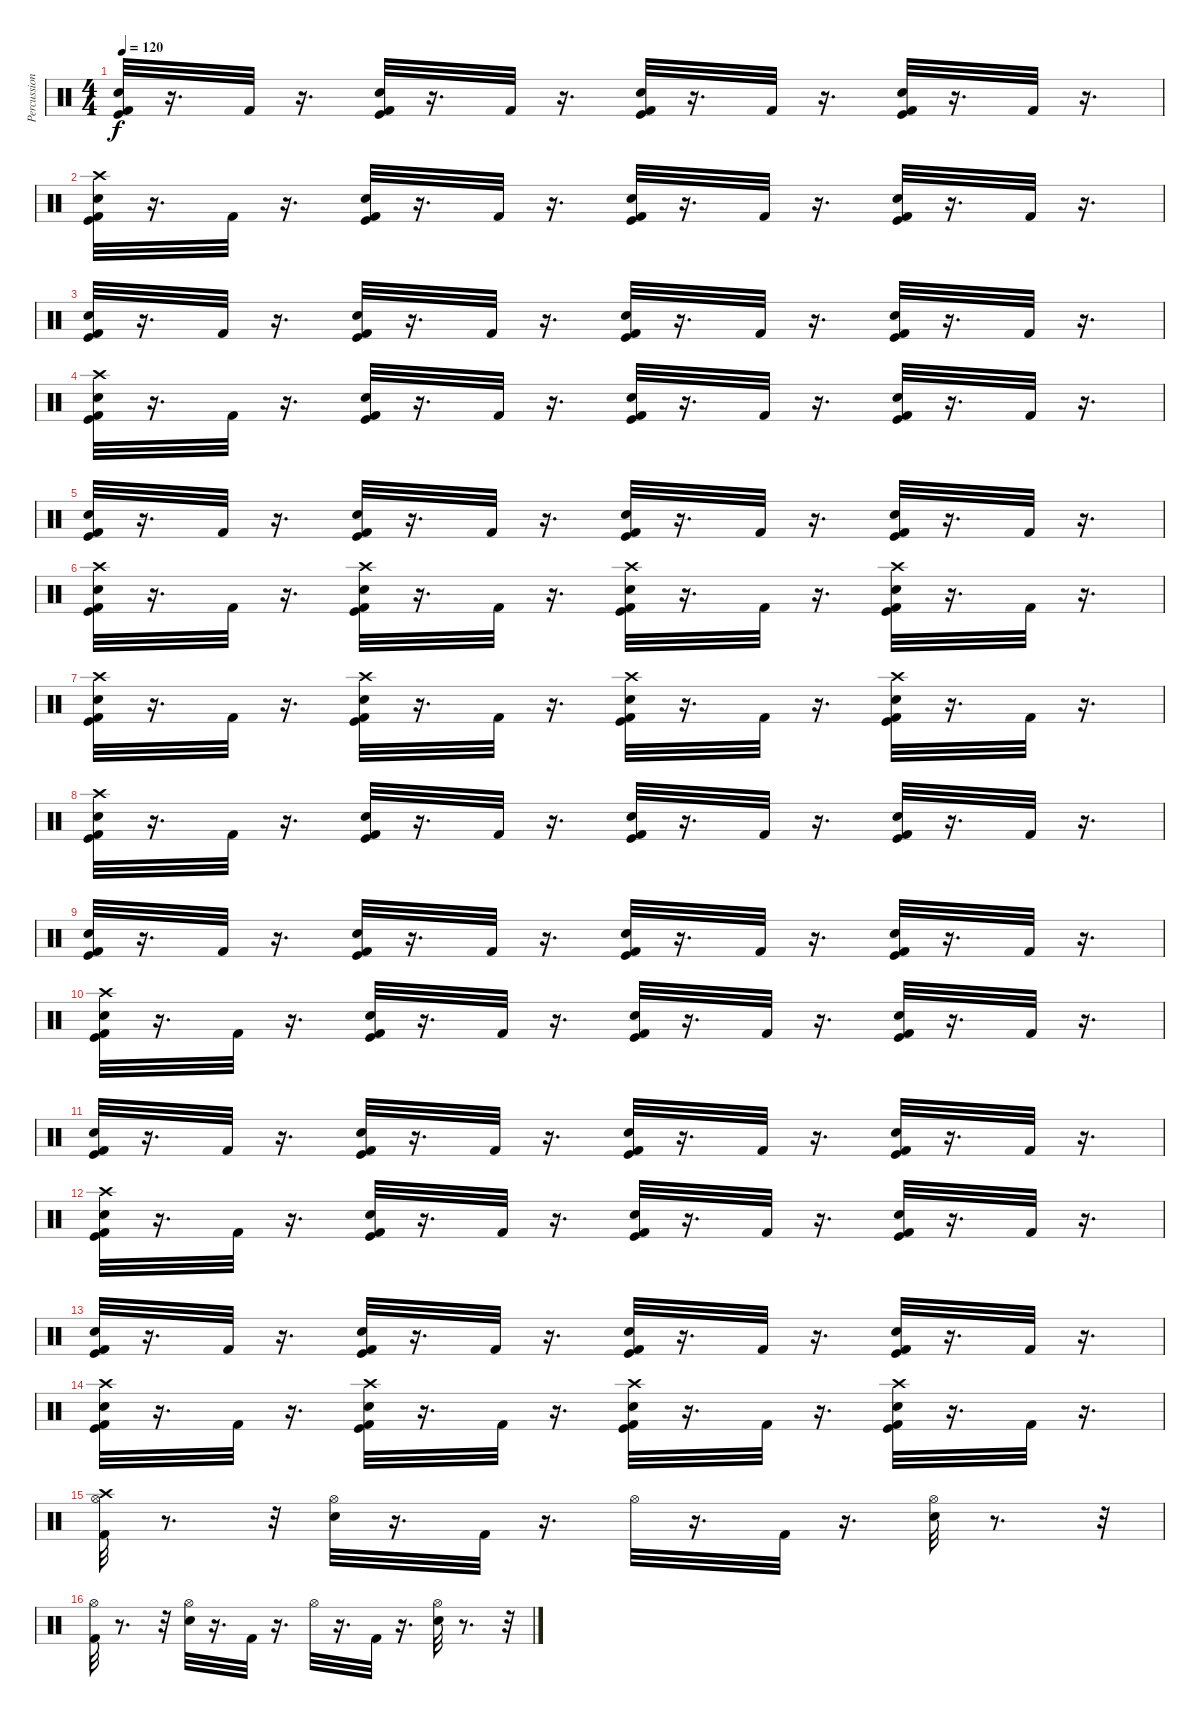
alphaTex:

\track ("Percussion" "Percussion") {instrument percussion}
\staff {score}
\articulation defaults
\ts (4 4)
\tempo 120
\clef neutral
\ks c
("Electric Snare (hit)" "Kick (hit) 2" "Kick (hit)").32{dy f} r.16{d} "Kick (hit) 2".32 r.16{d} ("Electric Snare (hit)" "Kick (hit)" "Kick (hit) 2").32 r.16{d} "Kick (hit) 2".32 r.16{d} ("Electric Snare (hit)" "Kick (hit)" "Kick (hit) 2").32 r.16{d} "Kick (hit) 2".32 r.16{d} ("Electric Snare (hit)" "Kick (hit)" "Kick (hit) 2").32 r.16{d} "Kick (hit) 2".32 r.16{d} |
("Crash high (hit)" "Electric Snare (hit)" "Kick (hit) 2" "Kick (hit)").32 r.16{d} "Kick (hit) 2".32 r.16{d} ("Electric Snare (hit)" "Kick (hit)" "Kick (hit) 2").32 r.16{d} "Kick (hit) 2".32 r.16{d} ("Electric Snare (hit)" "Kick (hit)" "Kick (hit) 2").32 r.16{d} "Kick (hit) 2".32 r.16{d} ("Electric Snare (hit)" "Kick (hit)" "Kick (hit) 2").32 r.16{d} "Kick (hit) 2".32 r.16{d} |
("Electric Snare (hit)" "Kick (hit) 2" "Kick (hit)").32 r.16{d} "Kick (hit) 2".32 r.16{d} ("Electric Snare (hit)" "Kick (hit)" "Kick (hit) 2").32 r.16{d} "Kick (hit) 2".32 r.16{d} ("Electric Snare (hit)" "Kick (hit)" "Kick (hit) 2").32 r.16{d} "Kick (hit) 2".32 r.16{d} ("Electric Snare (hit)" "Kick (hit)" "Kick (hit) 2").32 r.16{d} "Kick (hit) 2".32 r.16{d} |
("Crash high (hit)" "Electric Snare (hit)" "Kick (hit) 2" "Kick (hit)").32 r.16{d} "Kick (hit) 2".32 r.16{d} ("Electric Snare (hit)" "Kick (hit)" "Kick (hit) 2").32 r.16{d} "Kick (hit) 2".32 r.16{d} ("Electric Snare (hit)" "Kick (hit)" "Kick (hit) 2").32 r.16{d} "Kick (hit) 2".32 r.16{d} ("Electric Snare (hit)" "Kick (hit)" "Kick (hit) 2").32 r.16{d} "Kick (hit) 2".32 r.16{d} |
("Electric Snare (hit)" "Kick (hit) 2" "Kick (hit)").32 r.16{d} "Kick (hit) 2".32 r.16{d} ("Electric Snare (hit)" "Kick (hit)" "Kick (hit) 2").32 r.16{d} "Kick (hit) 2".32 r.16{d} ("Electric Snare (hit)" "Kick (hit)" "Kick (hit) 2").32 r.16{d} "Kick (hit) 2".32 r.16{d} ("Electric Snare (hit)" "Kick (hit)" "Kick (hit) 2").32 r.16{d} "Kick (hit) 2".32 r.16{d} |
("Crash high (hit)" "Electric Snare (hit)" "Kick (hit) 2" "Kick (hit)").32 r.16{d} "Kick (hit) 2".32 r.16{d} ("Crash high (hit)" "Electric Snare (hit)" "Kick (hit)" "Kick (hit) 2").32 r.16{d} "Kick (hit) 2".32 r.16{d} ("Crash high (hit)" "Electric Snare (hit)" "Kick (hit)" "Kick (hit) 2").32 r.16{d} "Kick (hit) 2".32 r.16{d} ("Crash high (hit)" "Electric Snare (hit)" "Kick (hit)" "Kick (hit) 2").32 r.16{d} "Kick (hit) 2".32 r.16{d} |
("Crash high (hit)" "Electric Snare (hit)" "Kick (hit) 2" "Kick (hit)").32 r.16{d} "Kick (hit) 2".32 r.16{d} ("Crash high (hit)" "Electric Snare (hit)" "Kick (hit)" "Kick (hit) 2").32 r.16{d} "Kick (hit) 2".32 r.16{d} ("Crash high (hit)" "Electric Snare (hit)" "Kick (hit)" "Kick (hit) 2").32 r.16{d} "Kick (hit) 2".32 r.16{d} ("Crash high (hit)" "Electric Snare (hit)" "Kick (hit)" "Kick (hit) 2").32 r.16{d} "Kick (hit) 2".32 r.16{d} |
("Crash high (hit)" "Electric Snare (hit)" "Kick (hit) 2" "Kick (hit)").32 r.16{d} "Kick (hit) 2".32 r.16{d} ("Electric Snare (hit)" "Kick (hit)" "Kick (hit) 2").32 r.16{d} "Kick (hit) 2".32 r.16{d} ("Electric Snare (hit)" "Kick (hit)" "Kick (hit) 2").32 r.16{d} "Kick (hit) 2".32 r.16{d} ("Electric Snare (hit)" "Kick (hit)" "Kick (hit) 2").32 r.16{d} "Kick (hit) 2".32 r.16{d} |
("Electric Snare (hit)" "Kick (hit) 2" "Kick (hit)").32 r.16{d} "Kick (hit) 2".32 r.16{d} ("Electric Snare (hit)" "Kick (hit)" "Kick (hit) 2").32 r.16{d} "Kick (hit) 2".32 r.16{d} ("Electric Snare (hit)" "Kick (hit)" "Kick (hit) 2").32 r.16{d} "Kick (hit) 2".32 r.16{d} ("Electric Snare (hit)" "Kick (hit)" "Kick (hit) 2").32 r.16{d} "Kick (hit) 2".32 r.16{d} |
("Crash high (hit)" "Electric Snare (hit)" "Kick (hit) 2" "Kick (hit)").32 r.16{d} "Kick (hit) 2".32 r.16{d} ("Electric Snare (hit)" "Kick (hit)" "Kick (hit) 2").32 r.16{d} "Kick (hit) 2".32 r.16{d} ("Electric Snare (hit)" "Kick (hit)" "Kick (hit) 2").32 r.16{d} "Kick (hit) 2".32 r.16{d} ("Electric Snare (hit)" "Kick (hit)" "Kick (hit) 2").32 r.16{d} "Kick (hit) 2".32 r.16{d} |
("Electric Snare (hit)" "Kick (hit) 2" "Kick (hit)").32 r.16{d} "Kick (hit) 2".32 r.16{d} ("Electric Snare (hit)" "Kick (hit)" "Kick (hit) 2").32 r.16{d} "Kick (hit) 2".32 r.16{d} ("Electric Snare (hit)" "Kick (hit)" "Kick (hit) 2").32 r.16{d} "Kick (hit) 2".32 r.16{d} ("Electric Snare (hit)" "Kick (hit)" "Kick (hit) 2").32 r.16{d} "Kick (hit) 2".32 r.16{d} |
("Crash high (hit)" "Electric Snare (hit)" "Kick (hit) 2" "Kick (hit)").32 r.16{d} "Kick (hit) 2".32 r.16{d} ("Electric Snare (hit)" "Kick (hit)" "Kick (hit) 2").32 r.16{d} "Kick (hit) 2".32 r.16{d} ("Electric Snare (hit)" "Kick (hit)" "Kick (hit) 2").32 r.16{d} "Kick (hit) 2".32 r.16{d} ("Electric Snare (hit)" "Kick (hit)" "Kick (hit) 2").32 r.16{d} "Kick (hit) 2".32 r.16{d} |
("Electric Snare (hit)" "Kick (hit) 2" "Kick (hit)").32 r.16{d} "Kick (hit) 2".32 r.16{d} ("Electric Snare (hit)" "Kick (hit)" "Kick (hit) 2").32 r.16{d} "Kick (hit) 2".32 r.16{d} ("Electric Snare (hit)" "Kick (hit)" "Kick (hit) 2").32 r.16{d} "Kick (hit) 2".32 r.16{d} ("Electric Snare (hit)" "Kick (hit)" "Kick (hit) 2").32 r.16{d} "Kick (hit) 2".32 r.16{d} |
("Crash high (hit)" "Electric Snare (hit)" "Kick (hit) 2" "Kick (hit)").32 r.16{d} "Kick (hit) 2".32 r.16{d} ("Crash high (hit)" "Electric Snare (hit)" "Kick (hit)" "Kick (hit) 2").32 r.16{d} "Kick (hit) 2".32 r.16{d} ("Crash high (hit)" "Electric Snare (hit)" "Kick (hit)" "Kick (hit) 2").32 r.16{d} "Kick (hit) 2".32 r.16{d} ("Crash high (hit)" "Electric Snare (hit)" "Kick (hit)" "Kick (hit) 2").32 r.16{d} "Kick (hit) 2".32 r.16{d} |
("Hi-Hat (open)" "Crash high (hit)" "Kick (hit) 2").32 r.8{d} r.32 ("Electric Snare (hit)" "Hi-Hat (open)").32 r.16{d} "Kick (hit) 2".32 r.16{d} "Hi-Hat (open)".32 r.16{d} "Kick (hit) 2".32 r.16{d} ("Electric Snare (hit)" "Hi-Hat (open)").32 r.8{d} r.32 |
("Hi-Hat (open)" "Kick (hit) 2").32 r.8{d} r.32 ("Electric Snare (hit)" "Hi-Hat (open)").32 r.16{d} "Kick (hit) 2".32 r.16{d} "Hi-Hat (open)".32 r.16{d} "Kick (hit) 2".32 r.16{d} ("Electric Snare (hit)" "Hi-Hat (open)").32 r.8{d} r.32
